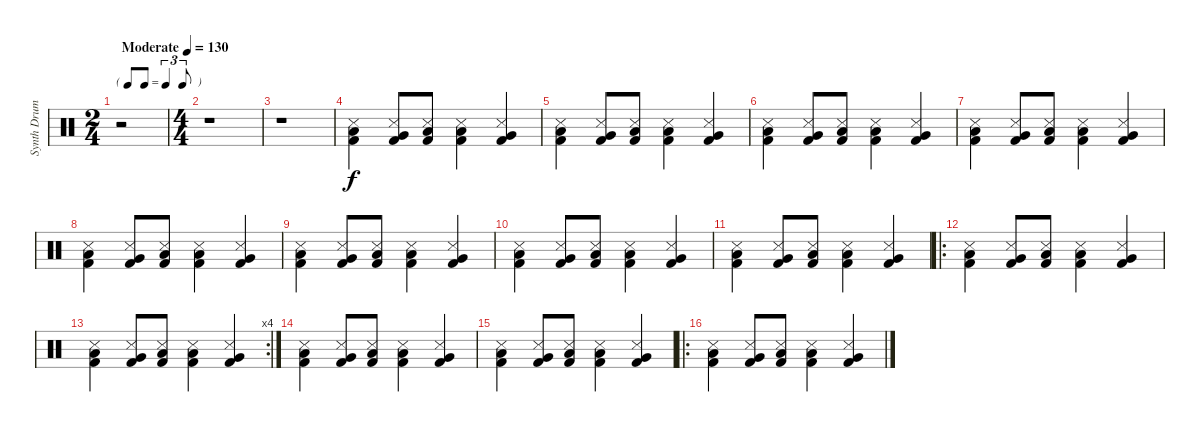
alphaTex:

\track ("Synth Drums (Alan Wilder)" "Synth Drum") {instrument percussion}
\staff {score}
\articulation defaults
\ts (2 4)
\tf triplet8th
\tempo (130 "Moderate")
\clef neutral
\ks c
r.2{dy f} |
\ts (4 4)
r.1 |
r.1 |
("Low Floor Tom (hit)" "Kick (hit) 2" "Snare (side stick) 3").4 ("Very Low Tom (hit)" "Kick (hit) 2" "Snare (side stick) 3").8 ("Low Floor Tom (hit)" "Kick (hit) 2" "Snare (side stick) 3").8 ("Low Floor Tom (hit)" "Kick (hit) 2" "Snare (side stick) 3").4 ("Very Low Tom (hit)" "Kick (hit) 2" "Snare (side stick) 3").4 |
("Low Floor Tom (hit)" "Kick (hit) 2" "Snare (side stick) 3").4 ("Very Low Tom (hit)" "Kick (hit) 2" "Snare (side stick) 3").8 ("Low Floor Tom (hit)" "Kick (hit) 2" "Snare (side stick) 3").8 ("Low Floor Tom (hit)" "Kick (hit) 2" "Snare (side stick) 3").4 ("Very Low Tom (hit)" "Kick (hit) 2" "Snare (side stick) 3").4 |
("Low Floor Tom (hit)" "Kick (hit) 2" "Snare (side stick) 3").4 ("Very Low Tom (hit)" "Kick (hit) 2" "Snare (side stick) 3").8 ("Low Floor Tom (hit)" "Kick (hit) 2" "Snare (side stick) 3").8 ("Low Floor Tom (hit)" "Kick (hit) 2" "Snare (side stick) 3").4 ("Very Low Tom (hit)" "Kick (hit) 2" "Snare (side stick) 3").4 |
("Low Floor Tom (hit)" "Kick (hit) 2" "Snare (side stick) 3").4 ("Very Low Tom (hit)" "Kick (hit) 2" "Snare (side stick) 3").8 ("Low Floor Tom (hit)" "Kick (hit) 2" "Snare (side stick) 3").8 ("Low Floor Tom (hit)" "Kick (hit) 2" "Snare (side stick) 3").4 ("Very Low Tom (hit)" "Kick (hit) 2" "Snare (side stick) 3").4 |
("Low Floor Tom (hit)" "Kick (hit) 2" "Snare (side stick) 3").4 ("Very Low Tom (hit)" "Kick (hit) 2" "Snare (side stick) 3").8 ("Low Floor Tom (hit)" "Kick (hit) 2" "Snare (side stick) 3").8 ("Low Floor Tom (hit)" "Kick (hit) 2" "Snare (side stick) 3").4 ("Very Low Tom (hit)" "Kick (hit) 2" "Snare (side stick) 3").4 |
("Low Floor Tom (hit)" "Kick (hit) 2" "Snare (side stick) 3").4 ("Very Low Tom (hit)" "Kick (hit) 2" "Snare (side stick) 3").8 ("Low Floor Tom (hit)" "Kick (hit) 2" "Snare (side stick) 3").8 ("Low Floor Tom (hit)" "Kick (hit) 2" "Snare (side stick) 3").4 ("Very Low Tom (hit)" "Kick (hit) 2" "Snare (side stick) 3").4 |
("Low Floor Tom (hit)" "Kick (hit) 2" "Snare (side stick) 3").4 ("Very Low Tom (hit)" "Kick (hit) 2" "Snare (side stick) 3").8 ("Low Floor Tom (hit)" "Kick (hit) 2" "Snare (side stick) 3").8 ("Low Floor Tom (hit)" "Kick (hit) 2" "Snare (side stick) 3").4 ("Very Low Tom (hit)" "Kick (hit) 2" "Snare (side stick) 3").4 |
("Low Floor Tom (hit)" "Kick (hit) 2" "Snare (side stick) 3").4 ("Very Low Tom (hit)" "Kick (hit) 2" "Snare (side stick) 3").8 ("Low Floor Tom (hit)" "Kick (hit) 2" "Snare (side stick) 3").8 ("Low Floor Tom (hit)" "Kick (hit) 2" "Snare (side stick) 3").4 ("Very Low Tom (hit)" "Kick (hit) 2" "Snare (side stick) 3").4 |
\ro
("Low Floor Tom (hit)" "Kick (hit) 2" "Snare (side stick) 3").4 ("Very Low Tom (hit)" "Kick (hit) 2" "Snare (side stick) 3").8 ("Low Floor Tom (hit)" "Kick (hit) 2" "Snare (side stick) 3").8 ("Low Floor Tom (hit)" "Kick (hit) 2" "Snare (side stick) 3").4 ("Very Low Tom (hit)" "Kick (hit) 2" "Snare (side stick) 3").4 |
\rc 4
("Low Floor Tom (hit)" "Kick (hit) 2" "Snare (side stick) 3").4 ("Very Low Tom (hit)" "Kick (hit) 2" "Snare (side stick) 3").8 ("Low Floor Tom (hit)" "Kick (hit) 2" "Snare (side stick) 3").8 ("Low Floor Tom (hit)" "Kick (hit) 2" "Snare (side stick) 3").4 ("Very Low Tom (hit)" "Kick (hit) 2" "Snare (side stick) 3").4 |
("Low Floor Tom (hit)" "Kick (hit) 2" "Snare (side stick) 3").4 ("Very Low Tom (hit)" "Kick (hit) 2" "Snare (side stick) 3").8 ("Low Floor Tom (hit)" "Kick (hit) 2" "Snare (side stick) 3").8 ("Low Floor Tom (hit)" "Kick (hit) 2" "Snare (side stick) 3").4 ("Very Low Tom (hit)" "Kick (hit) 2" "Snare (side stick) 3").4 |
("Low Floor Tom (hit)" "Kick (hit) 2" "Snare (side stick) 3").4 ("Very Low Tom (hit)" "Kick (hit) 2" "Snare (side stick) 3").8 ("Low Floor Tom (hit)" "Kick (hit) 2" "Snare (side stick) 3").8 ("Low Floor Tom (hit)" "Kick (hit) 2" "Snare (side stick) 3").4 ("Very Low Tom (hit)" "Kick (hit) 2" "Snare (side stick) 3").4 |
\ro
("Low Floor Tom (hit)" "Kick (hit) 2" "Snare (side stick) 3").4 ("Very Low Tom (hit)" "Kick (hit) 2" "Snare (side stick) 3").8 ("Low Floor Tom (hit)" "Kick (hit) 2" "Snare (side stick) 3").8 ("Low Floor Tom (hit)" "Kick (hit) 2" "Snare (side stick) 3").4 ("Very Low Tom (hit)" "Kick (hit) 2" "Snare (side stick) 3").4
